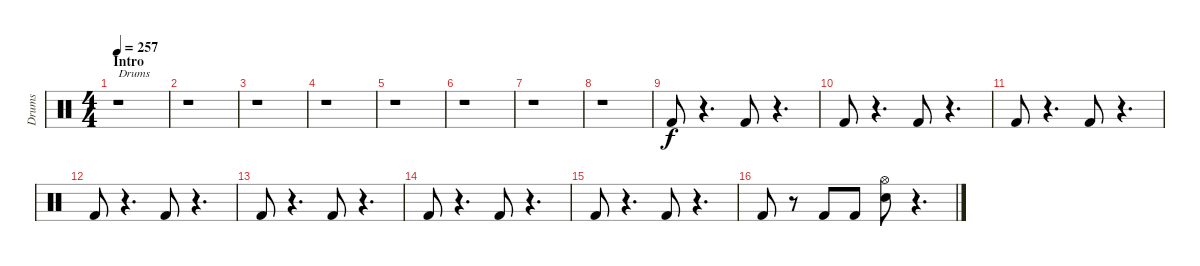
\track ("Drums" "Drums") {instrument percussion}
\staff {score}
\articulation defaults
\ts (4 4)
\section ("" "Intro")
\tempo 257
\clef neutral
\ks c
r.1{txt "Drums" dy f} |
r.1 |
r.1 |
r.1 |
r.1 |
r.1 |
r.1 |
r.1 |
"Kick (hit) 2".8 r.4{d} "Kick (hit) 2".8 r.4{d} |
"Kick (hit) 2".8 r.4{d} "Kick (hit) 2".8 r.4{d} |
"Kick (hit) 2".8 r.4{d} "Kick (hit) 2".8 r.4{d} |
"Kick (hit) 2".8 r.4{d} "Kick (hit) 2".8 r.4{d} |
"Kick (hit) 2".8 r.4{d} "Kick (hit) 2".8 r.4{d} |
"Kick (hit) 2".8 r.4{d} "Kick (hit) 2".8 r.4{d} |
"Kick (hit) 2".8 r.4{d} "Kick (hit) 2".8 r.4{d} |
"Kick (hit) 2".8 r.8 "Kick (hit) 2".8 "Kick (hit) 2".8 ("Snare (hit) 2" "Hi-Hat (open)").8 r.4{d}
